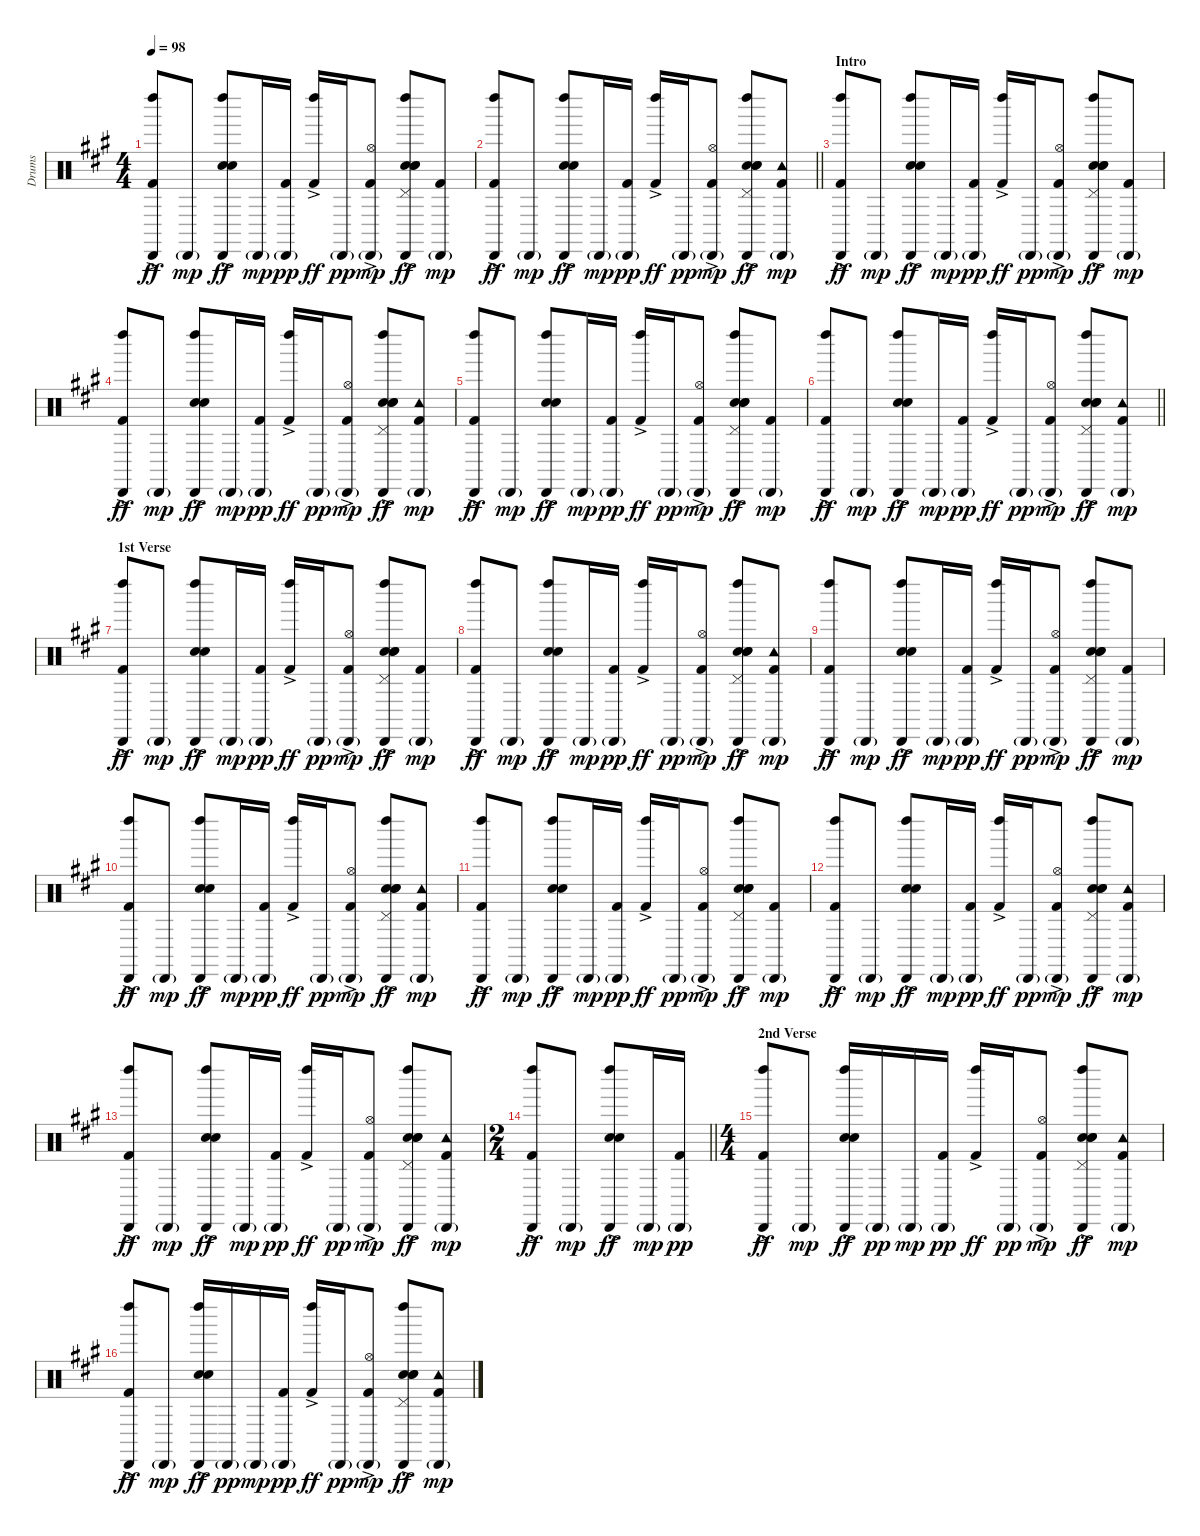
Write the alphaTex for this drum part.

\track ("Drums" "Drums") {instrument percussion}
\staff {score}
\articulation defaults
\ts (4 4)
\tempo 98
\clef neutral
\ks a
("Kick (hit) 2"{ac} "Cabasa (hit)" "Left Maraca (hit)"{ac}).8{dy ff} "Cabasa (hit)"{g}.8{dy mp} ("Snare (hit) 2" "Electric Snare (hit)"{ac} "Cabasa (hit)" "Left Maraca (hit)"{ac}).8{dy ff} "Cabasa (hit)"{g}.16{dy mp} ("Kick (hit) 2" "Cabasa (hit)"{g}).16{dy pp} ("Kick (hit) 2"{ac} "Left Maraca (hit)"{ac}).16{dy ff} "Cabasa (hit)"{g}.16{dy pp} ("Kick (hit) 2"{ac} "Hi-Hat (open)" "Cabasa (hit)"{g}).8{dy mp} ("Snare (hit) 2" "Electric Snare (hit)"{ac} "Pedal Hi-Hat (hit)" "Hand Clap (hit)"{ac} "Cabasa (hit)" "Left Maraca (hit)"{ac}).8{dy ff} ("Kick (hit) 2" "Cabasa (hit)"{g}).8{dy mp} |
\barLineRight lightlight
("Kick (hit) 2"{ac} "Cabasa (hit)" "Left Maraca (hit)"{ac}).8{dy ff} "Cabasa (hit)"{g}.8{dy mp} ("Snare (hit) 2" "Electric Snare (hit)"{ac} "Cabasa (hit)" "Left Maraca (hit)"{ac}).8{dy ff} "Cabasa (hit)"{g}.16{dy mp} ("Kick (hit) 2" "Cabasa (hit)"{g}).16{dy pp} ("Kick (hit) 2"{ac} "Left Maraca (hit)"{ac}).16{dy ff} "Cabasa (hit)"{g}.16{dy pp} ("Kick (hit) 2"{ac} "Hi-Hat (open)" "Cabasa (hit)"{g}).8{dy mp} ("Snare (hit) 2" "Electric Snare (hit)"{ac} "Pedal Hi-Hat (hit)" "Hand Clap (hit)"{ac} "Cabasa (hit)" "Left Maraca (hit)"{ac}).8{dy ff} ("Kick (hit) 2" "Tambourine (hit)" "Cabasa (hit)"{g}).8{dy mp} |
\section ("" "Intro")
("Kick (hit) 2"{ac} "Cabasa (hit)" "Left Maraca (hit)"{ac}).8{dy ff} "Cabasa (hit)"{g}.8{dy mp} ("Snare (hit) 2" "Electric Snare (hit)"{ac} "Cabasa (hit)" "Left Maraca (hit)"{ac}).8{dy ff} "Cabasa (hit)"{g}.16{dy mp} ("Kick (hit) 2" "Cabasa (hit)"{g}).16{dy pp} ("Kick (hit) 2"{ac} "Left Maraca (hit)"{ac}).16{dy ff} "Cabasa (hit)"{g}.16{dy pp} ("Kick (hit) 2"{ac} "Hi-Hat (open)" "Cabasa (hit)"{g}).8{dy mp} ("Snare (hit) 2" "Electric Snare (hit)"{ac} "Pedal Hi-Hat (hit)" "Hand Clap (hit)"{ac} "Cabasa (hit)" "Left Maraca (hit)"{ac}).8{dy ff} ("Kick (hit) 2" "Cabasa (hit)"{g}).8{dy mp} |
("Kick (hit) 2"{ac} "Cabasa (hit)" "Left Maraca (hit)"{ac}).8{dy ff} "Cabasa (hit)"{g}.8{dy mp} ("Snare (hit) 2" "Electric Snare (hit)"{ac} "Cabasa (hit)" "Left Maraca (hit)"{ac}).8{dy ff} "Cabasa (hit)"{g}.16{dy mp} ("Kick (hit) 2" "Cabasa (hit)"{g}).16{dy pp} ("Kick (hit) 2"{ac} "Left Maraca (hit)"{ac}).16{dy ff} "Cabasa (hit)"{g}.16{dy pp} ("Kick (hit) 2"{ac} "Hi-Hat (open)" "Cabasa (hit)"{g}).8{dy mp} ("Snare (hit) 2" "Electric Snare (hit)"{ac} "Pedal Hi-Hat (hit)" "Hand Clap (hit)"{ac} "Cabasa (hit)" "Left Maraca (hit)"{ac}).8{dy ff} ("Kick (hit) 2" "Tambourine (hit)" "Cabasa (hit)"{g}).8{dy mp} |
("Kick (hit) 2"{ac} "Cabasa (hit)" "Left Maraca (hit)"{ac}).8{dy ff} "Cabasa (hit)"{g}.8{dy mp} ("Snare (hit) 2" "Electric Snare (hit)"{ac} "Cabasa (hit)" "Left Maraca (hit)"{ac}).8{dy ff} "Cabasa (hit)"{g}.16{dy mp} ("Kick (hit) 2" "Cabasa (hit)"{g}).16{dy pp} ("Kick (hit) 2"{ac} "Left Maraca (hit)"{ac}).16{dy ff} "Cabasa (hit)"{g}.16{dy pp} ("Kick (hit) 2"{ac} "Hi-Hat (open)" "Cabasa (hit)"{g}).8{dy mp} ("Snare (hit) 2" "Electric Snare (hit)"{ac} "Pedal Hi-Hat (hit)" "Hand Clap (hit)"{ac} "Cabasa (hit)" "Left Maraca (hit)"{ac}).8{dy ff} ("Kick (hit) 2" "Cabasa (hit)"{g}).8{dy mp} |
\barLineRight lightlight
("Kick (hit) 2"{ac} "Cabasa (hit)" "Left Maraca (hit)"{ac}).8{dy ff} "Cabasa (hit)"{g}.8{dy mp} ("Snare (hit) 2" "Electric Snare (hit)"{ac} "Cabasa (hit)" "Left Maraca (hit)"{ac}).8{dy ff} "Cabasa (hit)"{g}.16{dy mp} ("Kick (hit) 2" "Cabasa (hit)"{g}).16{dy pp} ("Kick (hit) 2"{ac} "Left Maraca (hit)"{ac}).16{dy ff} "Cabasa (hit)"{g}.16{dy pp} ("Kick (hit) 2"{ac} "Hi-Hat (open)" "Cabasa (hit)"{g}).8{dy mp} ("Snare (hit) 2" "Electric Snare (hit)"{ac} "Pedal Hi-Hat (hit)" "Hand Clap (hit)"{ac} "Cabasa (hit)" "Left Maraca (hit)"{ac}).8{dy ff} ("Kick (hit) 2" "Tambourine (hit)" "Cabasa (hit)"{g}).8{dy mp} |
\section ("" "1st Verse")
("Kick (hit) 2"{ac} "Cabasa (hit)" "Left Maraca (hit)"{ac}).8{dy ff} "Cabasa (hit)"{g}.8{dy mp} ("Snare (hit) 2" "Electric Snare (hit)"{ac} "Cabasa (hit)" "Left Maraca (hit)"{ac}).8{dy ff} "Cabasa (hit)"{g}.16{dy mp} ("Kick (hit) 2" "Cabasa (hit)"{g}).16{dy pp} ("Kick (hit) 2"{ac} "Left Maraca (hit)"{ac}).16{dy ff} "Cabasa (hit)"{g}.16{dy pp} ("Kick (hit) 2"{ac} "Hi-Hat (open)" "Cabasa (hit)"{g}).8{dy mp} ("Snare (hit) 2" "Electric Snare (hit)"{ac} "Pedal Hi-Hat (hit)" "Hand Clap (hit)"{ac} "Cabasa (hit)" "Left Maraca (hit)"{ac}).8{dy ff} ("Kick (hit) 2" "Cabasa (hit)"{g}).8{dy mp} |
("Kick (hit) 2"{ac} "Cabasa (hit)" "Left Maraca (hit)"{ac}).8{dy ff} "Cabasa (hit)"{g}.8{dy mp} ("Snare (hit) 2" "Electric Snare (hit)"{ac} "Cabasa (hit)" "Left Maraca (hit)"{ac}).8{dy ff} "Cabasa (hit)"{g}.16{dy mp} ("Kick (hit) 2" "Cabasa (hit)"{g}).16{dy pp} ("Kick (hit) 2"{ac} "Left Maraca (hit)"{ac}).16{dy ff} "Cabasa (hit)"{g}.16{dy pp} ("Kick (hit) 2"{ac} "Hi-Hat (open)" "Cabasa (hit)"{g}).8{dy mp} ("Snare (hit) 2" "Electric Snare (hit)"{ac} "Pedal Hi-Hat (hit)" "Hand Clap (hit)"{ac} "Cabasa (hit)" "Left Maraca (hit)"{ac}).8{dy ff} ("Kick (hit) 2" "Tambourine (hit)" "Cabasa (hit)"{g}).8{dy mp} |
("Kick (hit) 2"{ac} "Cabasa (hit)" "Left Maraca (hit)"{ac}).8{dy ff} "Cabasa (hit)"{g}.8{dy mp} ("Snare (hit) 2" "Electric Snare (hit)"{ac} "Cabasa (hit)" "Left Maraca (hit)"{ac}).8{dy ff} "Cabasa (hit)"{g}.16{dy mp} ("Kick (hit) 2" "Cabasa (hit)"{g}).16{dy pp} ("Kick (hit) 2"{ac} "Left Maraca (hit)"{ac}).16{dy ff} "Cabasa (hit)"{g}.16{dy pp} ("Kick (hit) 2"{ac} "Hi-Hat (open)" "Cabasa (hit)"{g}).8{dy mp} ("Snare (hit) 2" "Electric Snare (hit)"{ac} "Pedal Hi-Hat (hit)" "Hand Clap (hit)"{ac} "Cabasa (hit)" "Left Maraca (hit)"{ac}).8{dy ff} ("Kick (hit) 2" "Cabasa (hit)"{g}).8{dy mp} |
("Kick (hit) 2"{ac} "Cabasa (hit)" "Left Maraca (hit)"{ac}).8{dy ff} "Cabasa (hit)"{g}.8{dy mp} ("Snare (hit) 2" "Electric Snare (hit)"{ac} "Cabasa (hit)" "Left Maraca (hit)"{ac}).8{dy ff} "Cabasa (hit)"{g}.16{dy mp} ("Kick (hit) 2" "Cabasa (hit)"{g}).16{dy pp} ("Kick (hit) 2"{ac} "Left Maraca (hit)"{ac}).16{dy ff} "Cabasa (hit)"{g}.16{dy pp} ("Kick (hit) 2"{ac} "Hi-Hat (open)" "Cabasa (hit)"{g}).8{dy mp} ("Snare (hit) 2" "Electric Snare (hit)"{ac} "Pedal Hi-Hat (hit)" "Hand Clap (hit)"{ac} "Cabasa (hit)" "Left Maraca (hit)"{ac}).8{dy ff} ("Kick (hit) 2" "Tambourine (hit)" "Cabasa (hit)"{g}).8{dy mp} |
("Kick (hit) 2"{ac} "Cabasa (hit)" "Left Maraca (hit)"{ac}).8{dy ff} "Cabasa (hit)"{g}.8{dy mp} ("Snare (hit) 2" "Electric Snare (hit)"{ac} "Cabasa (hit)" "Left Maraca (hit)"{ac}).8{dy ff} "Cabasa (hit)"{g}.16{dy mp} ("Kick (hit) 2" "Cabasa (hit)"{g}).16{dy pp} ("Kick (hit) 2"{ac} "Left Maraca (hit)"{ac}).16{dy ff} "Cabasa (hit)"{g}.16{dy pp} ("Kick (hit) 2"{ac} "Hi-Hat (open)" "Cabasa (hit)"{g}).8{dy mp} ("Snare (hit) 2" "Electric Snare (hit)"{ac} "Pedal Hi-Hat (hit)" "Hand Clap (hit)"{ac} "Cabasa (hit)" "Left Maraca (hit)"{ac}).8{dy ff} ("Kick (hit) 2" "Cabasa (hit)"{g}).8{dy mp} |
("Kick (hit) 2"{ac} "Cabasa (hit)" "Left Maraca (hit)"{ac}).8{dy ff} "Cabasa (hit)"{g}.8{dy mp} ("Snare (hit) 2" "Electric Snare (hit)"{ac} "Cabasa (hit)" "Left Maraca (hit)"{ac}).8{dy ff} "Cabasa (hit)"{g}.16{dy mp} ("Kick (hit) 2" "Cabasa (hit)"{g}).16{dy pp} ("Kick (hit) 2"{ac} "Left Maraca (hit)"{ac}).16{dy ff} "Cabasa (hit)"{g}.16{dy pp} ("Kick (hit) 2"{ac} "Hi-Hat (open)" "Cabasa (hit)"{g}).8{dy mp} ("Snare (hit) 2" "Electric Snare (hit)"{ac} "Pedal Hi-Hat (hit)" "Hand Clap (hit)"{ac} "Cabasa (hit)" "Left Maraca (hit)"{ac}).8{dy ff} ("Kick (hit) 2" "Tambourine (hit)" "Cabasa (hit)"{g}).8{dy mp} |
("Kick (hit) 2"{ac} "Cabasa (hit)" "Left Maraca (hit)"{ac}).8{dy ff} "Cabasa (hit)"{g}.8{dy mp} ("Snare (hit) 2" "Electric Snare (hit)"{ac} "Cabasa (hit)" "Left Maraca (hit)"{ac}).8{dy ff} "Cabasa (hit)"{g}.16{dy mp} ("Kick (hit) 2" "Cabasa (hit)"{g}).16{dy pp} ("Kick (hit) 2"{ac} "Left Maraca (hit)"{ac}).16{dy ff} "Cabasa (hit)"{g}.16{dy pp} ("Kick (hit) 2"{ac} "Hi-Hat (open)" "Cabasa (hit)"{g}).8{dy mp} ("Snare (hit) 2" "Electric Snare (hit)"{ac} "Pedal Hi-Hat (hit)" "Hand Clap (hit)"{ac} "Cabasa (hit)" "Left Maraca (hit)"{ac}).8{dy ff} ("Kick (hit) 2" "Tambourine (hit)" "Cabasa (hit)"{g}).8{dy mp} |
\ts (2 4)
\barLineRight lightlight
("Kick (hit) 2"{ac} "Cabasa (hit)" "Left Maraca (hit)"{ac}).8{dy ff} "Cabasa (hit)"{g}.8{dy mp} ("Snare (hit) 2" "Electric Snare (hit)"{ac} "Cabasa (hit)" "Left Maraca (hit)"{ac}).8{dy ff} "Cabasa (hit)"{g}.16{dy mp} ("Kick (hit) 2" "Cabasa (hit)"{g}).16{dy pp} |
\ts (4 4)
\section ("" "2nd Verse")
("Kick (hit) 2"{ac} "Cabasa (hit)" "Left Maraca (hit)"{ac}).8{dy ff} "Cabasa (hit)"{g}.8{dy mp} ("Snare (hit) 2" "Electric Snare (hit)"{ac} "Cabasa (hit)" "Left Maraca (hit)"{ac}).16{dy ff} "Cabasa (hit)"{g}.16{dy pp} "Cabasa (hit)"{g}.16{dy mp} ("Kick (hit) 2" "Cabasa (hit)"{g}).16{dy pp} ("Kick (hit) 2"{ac} "Left Maraca (hit)"{ac}).16{dy ff} "Cabasa (hit)"{g}.16{dy pp} ("Kick (hit) 2"{ac} "Hi-Hat (open)" "Cabasa (hit)"{g}).8{dy mp} ("Snare (hit) 2" "Electric Snare (hit)"{ac} "Pedal Hi-Hat (hit)" "Hand Clap (hit)"{ac} "Cabasa (hit)" "Left Maraca (hit)"{ac}).8{dy ff} ("Kick (hit) 2" "Tambourine (hit)" "Cabasa (hit)"{g}).8{dy mp} |
("Kick (hit) 2"{ac} "Cabasa (hit)" "Left Maraca (hit)"{ac}).8{dy ff} "Cabasa (hit)"{g}.8{dy mp} ("Snare (hit) 2" "Electric Snare (hit)"{ac} "Cabasa (hit)" "Left Maraca (hit)"{ac}).16{dy ff} "Cabasa (hit)"{g}.16{dy pp} "Cabasa (hit)"{g}.16{dy mp} ("Kick (hit) 2" "Cabasa (hit)"{g}).16{dy pp} ("Kick (hit) 2"{ac} "Left Maraca (hit)"{ac}).16{dy ff} "Cabasa (hit)"{g}.16{dy pp} ("Kick (hit) 2"{ac} "Hi-Hat (open)" "Cabasa (hit)"{g}).8{dy mp} ("Snare (hit) 2" "Electric Snare (hit)"{ac} "Pedal Hi-Hat (hit)" "Hand Clap (hit)"{ac} "Cabasa (hit)" "Left Maraca (hit)"{ac}).8{dy ff} ("Kick (hit) 2" "Tambourine (hit)" "Cabasa (hit)"{g}).8{dy mp}
